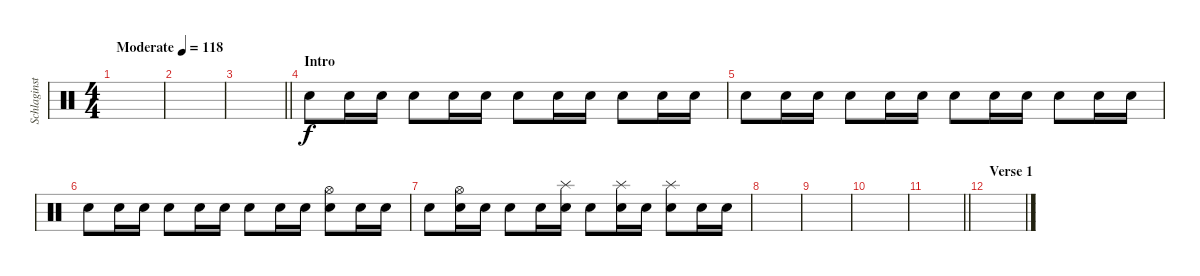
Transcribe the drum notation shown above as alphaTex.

\track ("Schlaginstrumente - Auswahl" "Schlaginst") {instrument percussion}
\staff {score}
\articulation defaults
\ts (4 4)
\tempo (118 "Moderate")
\clef neutral
\ks c
|
|
\barLineRight lightlight
|
\section ("" "Intro")
"Snare (hit) 2".8{volume 5} "Snare (hit) 2".16 "Snare (hit) 2".16 "Snare (hit) 2".8 "Snare (hit) 2".16 "Snare (hit) 2".16 "Snare (hit) 2".8 "Snare (hit) 2".16 "Snare (hit) 2".16 "Snare (hit) 2".8 "Snare (hit) 2".16 "Snare (hit) 2".16 |
"Snare (hit) 2".8 "Snare (hit) 2".16 "Snare (hit) 2".16 "Snare (hit) 2".8 "Snare (hit) 2".16 "Snare (hit) 2".16 "Snare (hit) 2".8 "Snare (hit) 2".16 "Snare (hit) 2".16 "Snare (hit) 2".8 "Snare (hit) 2".16 "Snare (hit) 2".16 |
"Snare (hit) 2".8 "Snare (hit) 2".16 "Snare (hit) 2".16 "Snare (hit) 2".8 "Snare (hit) 2".16 "Snare (hit) 2".16 "Snare (hit) 2".8 "Snare (hit) 2".16 "Snare (hit) 2".16 ("Snare (hit) 2" "Hi-Hat (open)").8 "Snare (hit) 2".16 "Snare (hit) 2".16 |
"Snare (hit) 2".8 ("Snare (hit) 2" "Hi-Hat (open)").16 "Snare (hit) 2".16 "Snare (hit) 2".8 "Snare (hit) 2".16 ("Snare (hit) 2" "Splash (hit)").16 "Snare (hit) 2".8 ("Snare (hit) 2" "Splash (hit)").16 "Snare (hit) 2".16 ("Snare (hit) 2" "Splash (hit)").8 "Snare (hit) 2".16 "Snare (hit) 2".16 |
|
|
|
\barLineRight lightlight
|
\section ("" "Verse 1")
